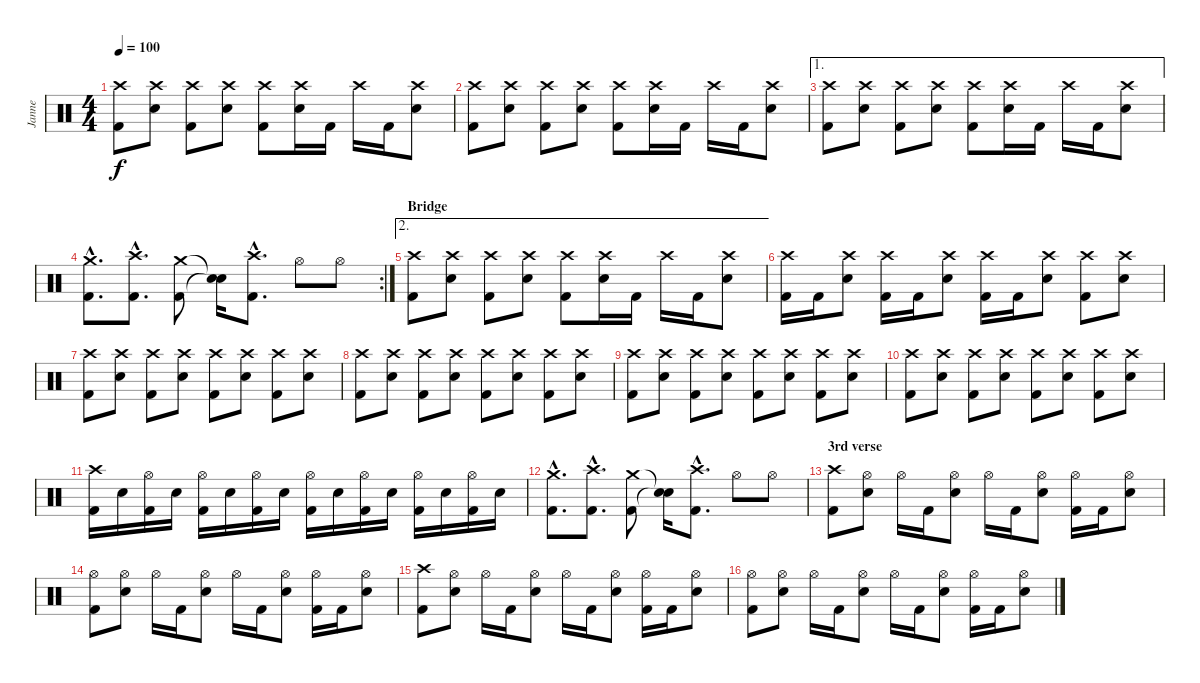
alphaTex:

\track ("Janne" "Janne") {instrument percussion}
\staff {score}
\articulation defaults
\ts (4 4)
\tempo 100
\clef neutral
\ks c
("Crash high (hit)" "Kick (hit) 2").8{dy f} ("Crash high (hit)" "Electric Snare (hit)").8 ("Crash high (hit)" "Kick (hit) 2").8 ("Crash high (hit)" "Electric Snare (hit)").8 ("Crash high (hit)" "Kick (hit) 2").8 ("Crash high (hit)" "Electric Snare (hit)").16 "Kick (hit) 2".16 "Crash high (hit)".16 "Kick (hit) 2".16 ("Crash high (hit)" "Electric Snare (hit)").8 |
("Crash high (hit)" "Kick (hit) 2").8 ("Crash high (hit)" "Electric Snare (hit)").8 ("Crash high (hit)" "Kick (hit) 2").8 ("Crash high (hit)" "Electric Snare (hit)").8 ("Crash high (hit)" "Kick (hit) 2").8 ("Crash high (hit)" "Electric Snare (hit)").16 "Kick (hit) 2".16 "Crash high (hit)".16 "Kick (hit) 2".16 ("Crash high (hit)" "Electric Snare (hit)").8 |
\ae 1
("Crash high (hit)" "Kick (hit) 2").8 ("Crash high (hit)" "Electric Snare (hit)").8 ("Crash high (hit)" "Kick (hit) 2").8 ("Crash high (hit)" "Electric Snare (hit)").8 ("Crash high (hit)" "Kick (hit) 2").8 ("Crash high (hit)" "Electric Snare (hit)").16 "Kick (hit) 2".16 "Crash high (hit)".16 "Kick (hit) 2".16 ("Crash high (hit)" "Electric Snare (hit)").8 |
\rc 2
("Crash medium (hit)"{hac} "Kick (hit) 2"{hac}).8{d} ("Crash high (hit)"{hac} "Kick (hit) 2"{hac}).8{d} ("Crash medium (hit)" "Kick (hit) 2").8 ("Snare (hit)"{t} "Snare (hit)"{t}).16 ("Crash high (hit)"{hac} "Kick (hit) 2"{hac}).8{d} "Hi-Hat (open)".8 "Hi-Hat (open)".8 |
\ae 2
\section ("" "Bridge")
("Crash high (hit)" "Kick (hit) 2").8 ("Crash high (hit)" "Electric Snare (hit)").8 ("Crash high (hit)" "Kick (hit) 2").8 ("Crash high (hit)" "Electric Snare (hit)").8 ("Crash high (hit)" "Kick (hit) 2").8 ("Crash high (hit)" "Electric Snare (hit)").16 "Kick (hit) 2".16 "Crash high (hit)".16 "Kick (hit) 2".16 ("Crash high (hit)" "Electric Snare (hit)").8 |
("Crash high (hit)" "Kick (hit) 2").16 "Kick (hit) 2".16 ("Crash high (hit)" "Electric Snare (hit)").8 ("Crash high (hit)" "Kick (hit) 2").16 "Kick (hit) 2".16 ("Crash high (hit)" "Electric Snare (hit)").8 ("Crash high (hit)" "Kick (hit) 2").16 "Kick (hit) 2".16 ("Crash high (hit)" "Electric Snare (hit)").8 ("Crash high (hit)" "Kick (hit) 2").8 ("Crash high (hit)" "Electric Snare (hit)").8 |
("Crash high (hit)" "Kick (hit) 2").8 ("Crash high (hit)" "Electric Snare (hit)").8 ("Crash high (hit)" "Kick (hit) 2").8 ("Crash high (hit)" "Electric Snare (hit)").8 ("Crash high (hit)" "Kick (hit) 2").8 ("Crash high (hit)" "Electric Snare (hit)").8 ("Crash high (hit)" "Kick (hit) 2").8 ("Crash high (hit)" "Electric Snare (hit)").8 |
("Crash high (hit)" "Kick (hit) 2").8 ("Crash high (hit)" "Electric Snare (hit)").8 ("Crash high (hit)" "Kick (hit) 2").8 ("Crash high (hit)" "Electric Snare (hit)").8 ("Crash high (hit)" "Kick (hit) 2").8 ("Crash high (hit)" "Electric Snare (hit)").8 ("Crash high (hit)" "Kick (hit) 2").8 ("Crash high (hit)" "Electric Snare (hit)").8 |
("Crash high (hit)" "Kick (hit) 2").8 ("Crash high (hit)" "Electric Snare (hit)").8 ("Crash high (hit)" "Kick (hit) 2").8 ("Crash high (hit)" "Electric Snare (hit)").8 ("Crash high (hit)" "Kick (hit) 2").8 ("Crash high (hit)" "Electric Snare (hit)").8 ("Crash high (hit)" "Kick (hit) 2").8 ("Crash high (hit)" "Electric Snare (hit)").8 |
("Crash high (hit)" "Kick (hit) 2").8 ("Crash high (hit)" "Electric Snare (hit)").8 ("Crash high (hit)" "Kick (hit) 2").8 ("Crash high (hit)" "Electric Snare (hit)").8 ("Crash high (hit)" "Kick (hit) 2").8 ("Crash high (hit)" "Electric Snare (hit)").8 ("Crash high (hit)" "Kick (hit) 2").8 ("Crash high (hit)" "Electric Snare (hit)").8 |
("Crash high (hit)" "Kick (hit) 2").16 "Electric Snare (hit)".16 ("Hi-Hat (open)" "Kick (hit) 2").16 "Electric Snare (hit)".16 ("Hi-Hat (open)" "Kick (hit) 2").16 "Electric Snare (hit)".16 ("Hi-Hat (open)" "Kick (hit) 2").16 "Electric Snare (hit)".16 ("Hi-Hat (open)" "Kick (hit) 2").16 "Electric Snare (hit)".16 ("Hi-Hat (open)" "Kick (hit) 2").16 "Electric Snare (hit)".16 ("Hi-Hat (open)" "Kick (hit) 2").16 "Electric Snare (hit)".16 ("Hi-Hat (open)" "Kick (hit) 2").16 "Electric Snare (hit)".16 |
("Crash medium (hit)"{hac} "Kick (hit) 2"{hac}).8{d} ("Crash high (hit)"{hac} "Kick (hit) 2"{hac}).8{d} ("Crash medium (hit)" "Kick (hit) 2").8 ("Snare (hit)"{t} "Snare (hit)"{t}).16 ("Crash high (hit)"{hac} "Kick (hit) 2"{hac}).8{d} "Hi-Hat (open)".8 "Hi-Hat (open)".8 |
\section ("" "3rd verse")
("Crash high (hit)" "Kick (hit) 2").8 ("Hi-Hat (open)" "Electric Snare (hit)").8 "Hi-Hat (open)".16 "Kick (hit) 2".16 ("Hi-Hat (open)" "Electric Snare (hit)").8 "Hi-Hat (open)".16 "Kick (hit) 2".16 ("Hi-Hat (open)" "Electric Snare (hit)").8 ("Hi-Hat (open)" "Kick (hit) 2").16 "Kick (hit) 2".16 ("Hi-Hat (open)" "Electric Snare (hit)").8 |
("Hi-Hat (open)" "Kick (hit) 2").8 ("Hi-Hat (open)" "Electric Snare (hit)").8 "Hi-Hat (open)".16 "Kick (hit) 2".16 ("Hi-Hat (open)" "Electric Snare (hit)").8 "Hi-Hat (open)".16 "Kick (hit) 2".16 ("Hi-Hat (open)" "Electric Snare (hit)").8 ("Hi-Hat (open)" "Kick (hit) 2").16 "Kick (hit) 2".16 ("Hi-Hat (open)" "Electric Snare (hit)").8 |
("Crash high (hit)" "Kick (hit) 2").8 ("Hi-Hat (open)" "Electric Snare (hit)").8 "Hi-Hat (open)".16 "Kick (hit) 2".16 ("Hi-Hat (open)" "Electric Snare (hit)").8 "Hi-Hat (open)".16 "Kick (hit) 2".16 ("Hi-Hat (open)" "Electric Snare (hit)").8 ("Hi-Hat (open)" "Kick (hit) 2").16 "Kick (hit) 2".16 ("Hi-Hat (open)" "Electric Snare (hit)").8 |
("Hi-Hat (open)" "Kick (hit) 2").8 ("Hi-Hat (open)" "Electric Snare (hit)").8 "Hi-Hat (open)".16 "Kick (hit) 2".16 ("Hi-Hat (open)" "Electric Snare (hit)").8 "Hi-Hat (open)".16 "Kick (hit) 2".16 ("Hi-Hat (open)" "Electric Snare (hit)").8 ("Hi-Hat (open)" "Kick (hit) 2").16 "Kick (hit) 2".16 ("Hi-Hat (open)" "Electric Snare (hit)").8
